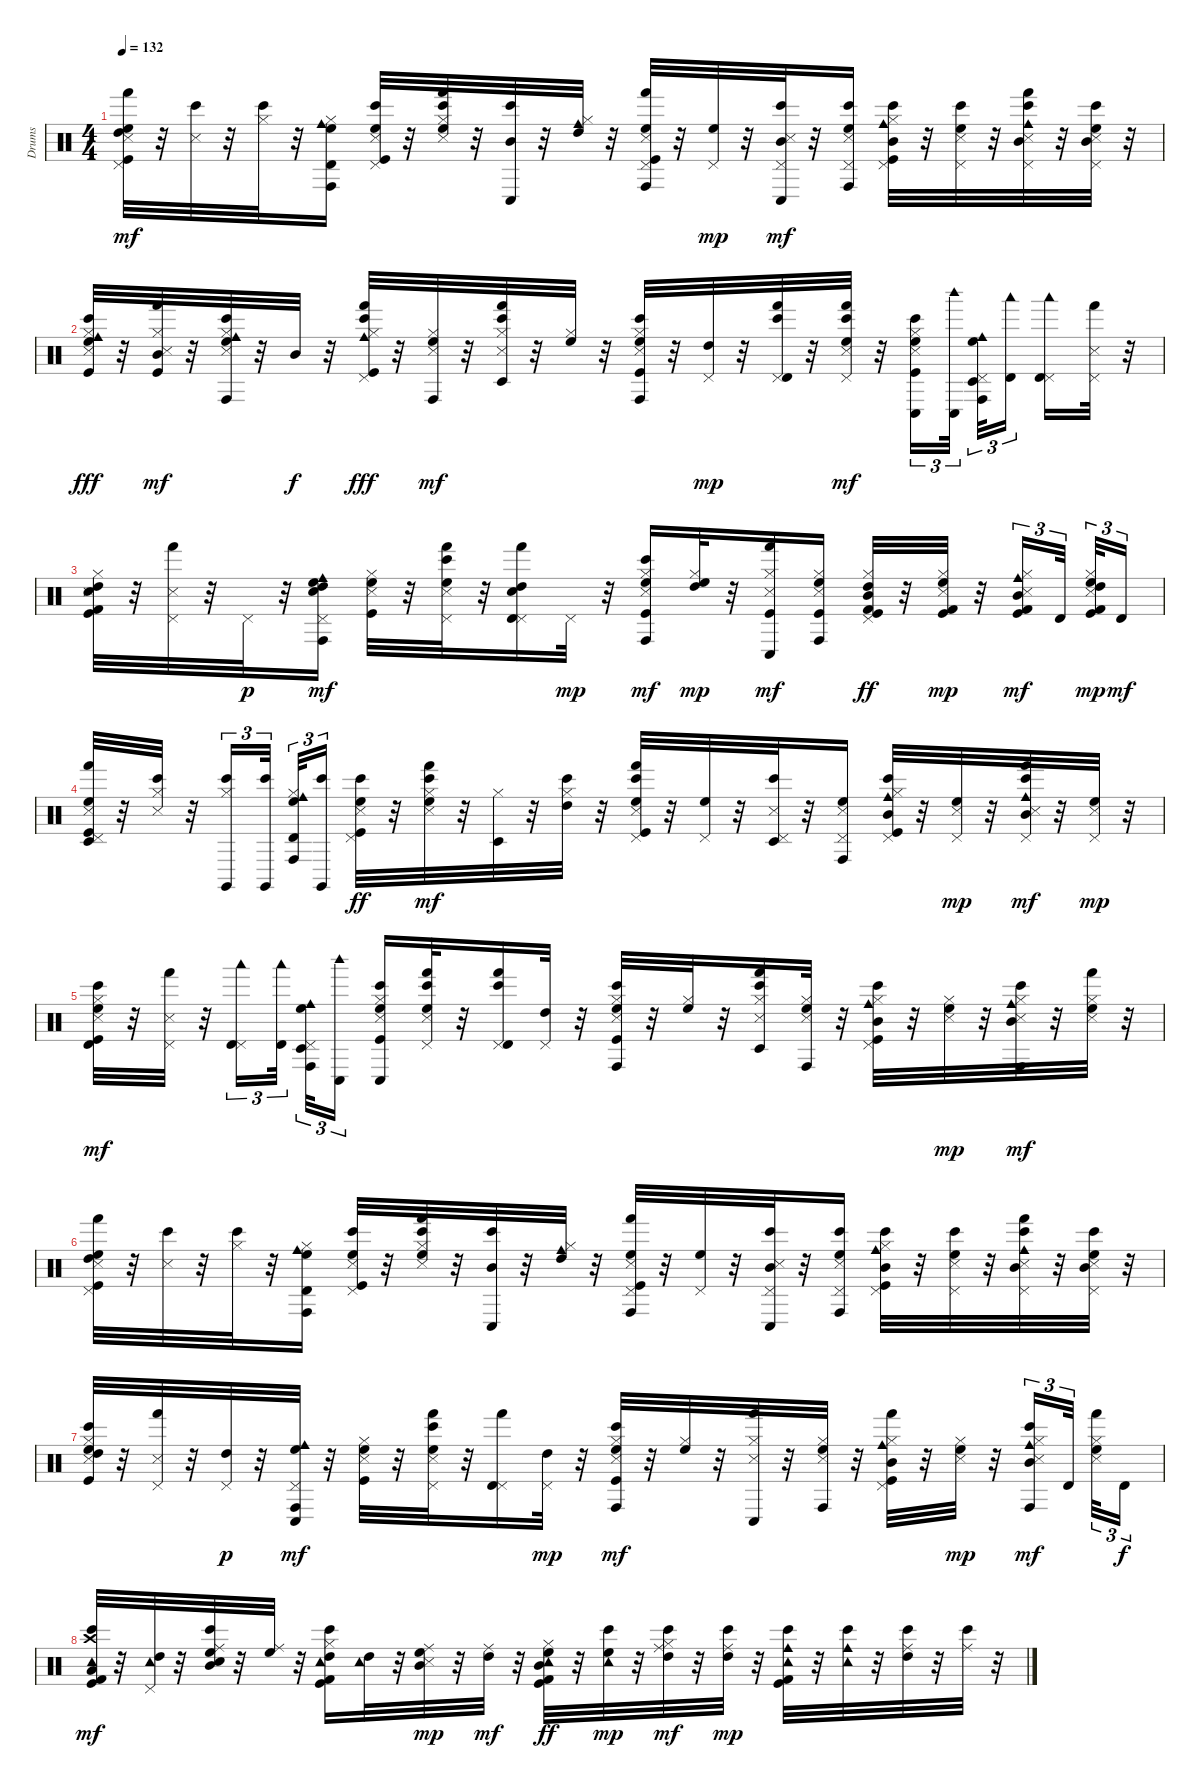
\track ("Drums" "Drums") {instrument percussion}
\staff {score}
\articulation defaults
\ts (4 4)
\tempo 132
\clef neutral
\ks c
("Kick (hit)" "Snare (side stick) 3" "Pedal Hi-Hat (hit)" "High Tom (hit)" "High Floor Tom (hit)" "Hand (hit)").32{dy mf} r.32 ("Snare (side stick) 3" "Bongo High (hit)").32 r.32 ("Hi-Hat (closed)" "Bongo High (hit)").32 r.32 ("Hi-Hat (closed)" "High Floor Tom (hit)" "Cowbell medium (hit)" "Conga high (hit)" "Timbale high (hit)").16 ("Kick (hit)" "Snare (side stick) 3" "Pedal Hi-Hat (hit)" "High Floor Tom (hit)" "Bongo High (hit)").32 r.32 ("Snare (side stick) 3" "Hi-Hat (closed)" "High Floor Tom (hit)" "Bongo High (hit)" "Hand (hit)").32 r.32 ("Mid Tom (hit)" "Bongo High (hit)" "Conga low (hit)").32 r.32 ("Hi-Hat (closed)" "High Tom (hit)" "Cowbell medium (hit)").32 r.32 ("Kick (hit)" "Snare (side stick) 3" "Pedal Hi-Hat (hit)" "High Floor Tom (hit)" "Hand (hit)" "Conga high (hit)").32 r.32 ("Pedal Hi-Hat (hit)" "High Floor Tom (hit)").32{dy mp} r.32 ("Snare (side stick) 3" "Pedal Hi-Hat (hit)" "Mid Tom (hit)" "Bongo High (hit)" "Conga low (hit)").32{dy mf} r.32 ("Snare (side stick) 3" "Pedal Hi-Hat (hit)" "High Floor Tom (hit)" "Bongo High (hit)" "Conga high (hit)").16 ("Kick (hit)" "Hi-Hat (closed)" "Pedal Hi-Hat (hit)" "Mid Tom (hit)" "Cowbell medium (hit)" "Bongo High (hit)").32 r.32 ("Snare (side stick) 3" "Pedal Hi-Hat (hit)" "High Floor Tom (hit)" "Bongo High (hit)").32 r.32 ("Snare (side stick) 3" "Pedal Hi-Hat (hit)" "Mid Tom (hit)" "Cowbell medium (hit)" "Bongo High (hit)" "Hand (hit)").32 r.32 ("Snare (side stick) 3" "Pedal Hi-Hat (hit)" "Mid Tom (hit)" "High Floor Tom (hit)" "Bongo High (hit)").32 r.32 |
("Kick (hit)" "Snare (side stick) 3" "Hi-Hat (closed)" "High Floor Tom (hit)" "Cowbell medium (hit)" "Bongo High (hit)").32{dy fff} r.32 ("Kick (hit)" "Snare (side stick) 3" "Hi-Hat (closed)" "Mid Tom (hit)" "Hand (hit)").32{dy mf} r.32 ("Snare (side stick) 3" "Hi-Hat (closed)" "High Floor Tom (hit)" "Cowbell medium (hit)" "Bongo High (hit)" "Conga high (hit)").32 r.32 "Mid Tom (hit)".32{dy f} r.32 ("Kick (hit)" "Hi-Hat (closed)" "Pedal Hi-Hat (hit)" "Cowbell medium (hit)" "Bongo High (hit)" "Hand (hit)").32{dy fff} r.32 ("Snare (side stick) 3" "Hi-Hat (closed)" "High Floor Tom (hit)" "Conga high (hit)").32{dy mf} r.32 ("Snare (side stick) 3" "Hi-Hat (closed)" "Bongo High (hit)" "Hand (hit)" "Timbale low (hit)").32 r.32 ("Hi-Hat (closed)" "High Floor Tom (hit)").32 r.32 ("Kick (hit)" "Snare (side stick) 3" "Hi-Hat (closed)" "High Floor Tom (hit)" "Bongo High (hit)" "Conga high (hit)").32 r.32 ("Pedal Hi-Hat (hit)" "High Tom (hit)").32{dy mp} r.32 ("Pedal Hi-Hat (hit)" "Bongo High (hit)" "Hand (hit)" "Timbale high (hit)").32 r.32 ("Snare (side stick) 3" "Pedal Hi-Hat (hit)" "High Floor Tom (hit)" "Bongo High (hit)" "Hand (hit)").32{dy mf} r.32 ("Kick (hit)" "Snare (side stick) 3" "Hi-Hat (closed)" "High Floor Tom (hit)" "Bongo High (hit)" "Conga low (hit)").16{tu (3 2)} ("Conga low (hit)" "Woodblock high (hit)").32{tu (3 2) beam splitsecondary} ("Pedal Hi-Hat (hit)" "High Floor Tom (hit)" "Cowbell medium (hit)" "Conga high (hit)" "Timbale low (hit)").32{tu (3 2)} ("Timbale high (hit)" "Woodblock low (hit)").16{tu (3 2) beam splitsecondary} ("Pedal Hi-Hat (hit)" "Timbale high (hit)" "Woodblock low (hit)").16 ("Snare (side stick) 3" "Pedal Hi-Hat (hit)" "Hand (hit)").32 r.32 |
("Kick (hit)" "Kick (hit) 2" "Snare (side stick) 3" "Snare (hit) 2" "Hi-Hat (closed)" "High Tom (hit)").32 r.32 ("Snare (side stick) 3" "Pedal Hi-Hat (hit)" "Hand (hit)").32 r.32 "Pedal Hi-Hat (hit)".32{dy p} r.32 ("Snare (hit) 2" "Pedal Hi-Hat (hit)" "High Tom (hit)" "High Floor Tom (hit)" "Cowbell medium (hit)" "Conga high (hit)").16{dy mf} ("Kick (hit)" "Snare (side stick) 3" "Hi-Hat (closed)" "High Floor Tom (hit)").32 r.32 ("Snare (side stick) 3" "Pedal Hi-Hat (hit)" "High Floor Tom (hit)" "Bongo High (hit)" "Hand (hit)").32 r.32 ("Snare (hit) 2" "Pedal Hi-Hat (hit)" "High Tom (hit)" "Hand (hit)" "Timbale high (hit)").16 "Pedal Hi-Hat (hit)".32{dy mp} r.32 ("Kick (hit)" "Snare (side stick) 3" "Hi-Hat (closed)" "High Floor Tom (hit)" "Bongo High (hit)" "Conga high (hit)").16{dy mf} ("Hi-Hat (closed)" "High Tom (hit)" "High Floor Tom (hit)").32{dy mp} r.32 ("Kick (hit)" "Snare (side stick) 3" "Hi-Hat (closed)" "Hand (hit)" "Conga low (hit)").16{dy mf} ("Kick (hit)" "Snare (side stick) 3" "Hi-Hat (closed)" "High Floor Tom (hit)" "Conga high (hit)").16 ("Kick (hit)" "Kick (hit) 2" "Hi-Hat (closed)" "Pedal Hi-Hat (hit)" "Mid Tom (hit)" "High Tom (hit)").32{dy ff} r.32 ("Kick (hit)" "Kick (hit) 2" "Snare (side stick) 3" "Hi-Hat (closed)" "High Floor Tom (hit)").32{dy mp} r.32 ("Kick (hit)" "Kick (hit) 2" "Snare (side stick) 3" "Hi-Hat (closed)" "Mid Tom (hit)" "Cowbell medium (hit)").16{tu (3 2) dy mf} "Timbale high (hit)".32{tu (3 2) beam splitsecondary} ("Kick (hit)" "Kick (hit) 2" "Snare (side stick) 3" "Hi-Hat (closed)" "High Tom (hit)" "High Floor Tom (hit)").32{tu (3 2) dy mp} "Timbale high (hit)".16{tu (3 2) dy mf} |
("Kick (hit)" "Snare (side stick) 3" "Pedal Hi-Hat (hit)" "High Floor Tom (hit)" "Hand (hit)" "Timbale low (hit)").32 r.32 ("Snare (side stick) 3" "Hi-Hat (closed)" "Bongo High (hit)").32 r.32 ("Hi-Hat (closed)" "Bongo High (hit)" "Claves (hit)").16{tu (3 2)} ("Bongo High (hit)" "Claves (hit)").32{tu (3 2) beam splitsecondary} ("Hi-Hat (closed)" "High Floor Tom (hit)" "Cowbell medium (hit)" "Conga high (hit)" "Timbale high (hit)").32{tu (3 2)} ("Bongo High (hit)" "Claves (hit)").16{tu (3 2)} ("Kick (hit)" "Snare (side stick) 3" "Pedal Hi-Hat (hit)" "High Floor Tom (hit)" "Bongo High (hit)").32{dy ff} r.32 ("Snare (side stick) 3" "Hi-Hat (closed)" "High Floor Tom (hit)" "Bongo High (hit)" "Hand (hit)").32{dy mf} r.32 ("Hi-Hat (closed)" "Timbale low (hit)").32 r.32 ("Hi-Hat (closed)" "High Tom (hit)" "Bongo High (hit)").32 r.32 ("Kick (hit)" "Snare (side stick) 3" "Pedal Hi-Hat (hit)" "High Floor Tom (hit)" "Bongo High (hit)" "Hand (hit)").32 r.32 ("Pedal Hi-Hat (hit)" "High Floor Tom (hit)").32 r.32 ("Snare (side stick) 3" "Pedal Hi-Hat (hit)" "Bongo High (hit)" "Timbale low (hit)").32 r.32 ("Snare (side stick) 3" "Pedal Hi-Hat (hit)" "High Floor Tom (hit)" "Conga high (hit)").16 ("Kick (hit)" "Hi-Hat (closed)" "Pedal Hi-Hat (hit)" "Mid Tom (hit)" "Cowbell medium (hit)" "Bongo High (hit)").32 r.32 ("Snare (side stick) 3" "Pedal Hi-Hat (hit)" "High Floor Tom (hit)").32{dy mp} r.32 ("Snare (side stick) 3" "Pedal Hi-Hat (hit)" "Mid Tom (hit)" "Cowbell medium (hit)" "Bongo High (hit)" "Hand (hit)").32{dy mf} r.32 ("Snare (side stick) 3" "Pedal Hi-Hat (hit)" "High Floor Tom (hit)").32{dy mp} r.32 |
("Kick (hit)" "Snare (side stick) 3" "Hi-Hat (closed)" "High Floor Tom (hit)" "Bongo High (hit)" "Timbale high (hit)").32{dy mf} r.32 ("Snare (side stick) 3" "Pedal Hi-Hat (hit)" "Hand (hit)").32 r.32 ("Pedal Hi-Hat (hit)" "Timbale high (hit)" "Woodblock low (hit)").16{tu (3 2)} ("Timbale high (hit)" "Woodblock low (hit)").32{tu (3 2) beam splitsecondary} ("Pedal Hi-Hat (hit)" "High Floor Tom (hit)" "Cowbell medium (hit)" "Conga high (hit)" "Timbale low (hit)").32{tu (3 2)} ("Conga low (hit)" "Woodblock high (hit)").16{tu (3 2)} ("Kick (hit)" "Snare (side stick) 3" "Hi-Hat (closed)" "High Floor Tom (hit)" "Bongo High (hit)" "Conga low (hit)").16 ("Snare (side stick) 3" "Pedal Hi-Hat (hit)" "High Floor Tom (hit)" "Bongo High (hit)" "Hand (hit)").32 r.32 ("Pedal Hi-Hat (hit)" "Bongo High (hit)" "Hand (hit)" "Timbale high (hit)").16 ("Pedal Hi-Hat (hit)" "High Tom (hit)").32 r.32 ("Kick (hit)" "Snare (side stick) 3" "Hi-Hat (closed)" "High Floor Tom (hit)" "Bongo High (hit)" "Conga high (hit)").32 r.32 ("Hi-Hat (closed)" "High Floor Tom (hit)").32 r.32 ("Snare (side stick) 3" "Hi-Hat (closed)" "Bongo High (hit)" "Hand (hit)" "Timbale low (hit)").16 ("Snare (side stick) 3" "Hi-Hat (closed)" "High Floor Tom (hit)" "Conga high (hit)").32 r.32 ("Kick (hit)" "Hi-Hat (closed)" "Pedal Hi-Hat (hit)" "Mid Tom (hit)" "Cowbell medium (hit)" "Bongo High (hit)").32 r.32 ("Snare (side stick) 3" "Hi-Hat (closed)" "High Floor Tom (hit)").32{dy mp} r.32 ("Snare (side stick) 3" "Hi-Hat (closed)" "Mid Tom (hit)" "Cowbell medium (hit)" "Bongo High (hit)" "Conga high (hit)").32{dy mf} r.32 ("Snare (side stick) 3" "Hi-Hat (closed)" "High Floor Tom (hit)" "Hand (hit)").32 r.32 |
("Kick (hit)" "Snare (side stick) 3" "Pedal Hi-Hat (hit)" "High Tom (hit)" "High Floor Tom (hit)" "Hand (hit)").32 r.32 ("Snare (side stick) 3" "Bongo High (hit)").32 r.32 ("Hi-Hat (closed)" "Bongo High (hit)").32 r.32 ("Hi-Hat (closed)" "High Floor Tom (hit)" "Cowbell medium (hit)" "Conga high (hit)" "Timbale high (hit)").16 ("Kick (hit)" "Snare (side stick) 3" "Pedal Hi-Hat (hit)" "High Floor Tom (hit)" "Bongo High (hit)").32 r.32 ("Snare (side stick) 3" "Hi-Hat (closed)" "High Floor Tom (hit)" "Bongo High (hit)" "Hand (hit)").32 r.32 ("Mid Tom (hit)" "Bongo High (hit)" "Conga low (hit)").32 r.32 ("Hi-Hat (closed)" "High Tom (hit)" "Cowbell medium (hit)").32 r.32 ("Kick (hit)" "Snare (side stick) 3" "Pedal Hi-Hat (hit)" "High Floor Tom (hit)" "Hand (hit)" "Conga high (hit)").32 r.32 ("Pedal Hi-Hat (hit)" "High Floor Tom (hit)").32 r.32 ("Snare (side stick) 3" "Pedal Hi-Hat (hit)" "Mid Tom (hit)" "Bongo High (hit)" "Conga low (hit)").32 r.32 ("Snare (side stick) 3" "Pedal Hi-Hat (hit)" "High Floor Tom (hit)" "Bongo High (hit)" "Conga high (hit)").16 ("Kick (hit)" "Hi-Hat (closed)" "Pedal Hi-Hat (hit)" "Mid Tom (hit)" "Cowbell medium (hit)" "Bongo High (hit)").32 r.32 ("Snare (side stick) 3" "Pedal Hi-Hat (hit)" "High Floor Tom (hit)" "Bongo High (hit)").32 r.32 ("Snare (side stick) 3" "Pedal Hi-Hat (hit)" "Mid Tom (hit)" "Cowbell medium (hit)" "Bongo High (hit)" "Hand (hit)").32 r.32 ("Snare (side stick) 3" "Pedal Hi-Hat (hit)" "Mid Tom (hit)" "High Floor Tom (hit)" "Bongo High (hit)").32 r.32 |
("Kick (hit)" "Snare (side stick) 3" "Hi-Hat (closed)" "High Tom (hit)" "High Floor Tom (hit)" "Bongo High (hit)").32 r.32 ("Snare (side stick) 3" "Pedal Hi-Hat (hit)" "Hand (hit)").32 r.32 ("Pedal Hi-Hat (hit)" "High Tom (hit)").32{dy p} r.32 ("Pedal Hi-Hat (hit)" "High Floor Tom (hit)" "Cowbell medium (hit)" "Conga high (hit)" "Conga low (hit)").32{dy mf} r.32 ("Kick (hit)" "Snare (side stick) 3" "Hi-Hat (closed)" "High Floor Tom (hit)").32 r.32 ("Snare (side stick) 3" "Pedal Hi-Hat (hit)" "High Floor Tom (hit)" "Bongo High (hit)" "Hand (hit)").32 r.32 ("Pedal Hi-Hat (hit)" "Hand (hit)" "Timbale high (hit)").16 ("Pedal Hi-Hat (hit)" "High Tom (hit)").32{dy mp} r.32 ("Kick (hit)" "Snare (side stick) 3" "Hi-Hat (closed)" "High Floor Tom (hit)" "Bongo High (hit)" "Conga high (hit)").32{dy mf} r.32 ("Hi-Hat (closed)" "High Floor Tom (hit)").32 r.32 ("Snare (side stick) 3" "Hi-Hat (closed)" "Hand (hit)" "Conga low (hit)").32 r.32 ("Snare (side stick) 3" "Hi-Hat (closed)" "High Floor Tom (hit)" "Conga high (hit)").32 r.32 ("Kick (hit)" "Hi-Hat (closed)" "Pedal Hi-Hat (hit)" "Mid Tom (hit)" "Cowbell medium (hit)" "Hand (hit)").32 r.32 ("Snare (side stick) 3" "Hi-Hat (closed)" "High Floor Tom (hit)").32{dy mp} r.32 ("Snare (side stick) 3" "Hi-Hat (closed)" "Mid Tom (hit)" "Cowbell medium (hit)" "Bongo High (hit)" "Conga high (hit)").16{tu (3 2) dy mf} "Timbale high (hit)".32{tu (3 2) beam splitsecondary} ("Snare (side stick) 3" "Hi-Hat (closed)" "High Floor Tom (hit)" "Hand (hit)").32{tu (3 2)} "Timbale high (hit)".16{tu (3 2) dy f} |
("Kick (hit)" "Kick (hit) 2" "Low Tom (hit)" "Crash high (hit)" "Tambourine (hit)" "Bongo High (hit)").32{dy mf} r.32 ("Pedal Hi-Hat (hit)" "High Tom (hit)" "Tambourine (hit)").32 r.32 ("Hand Clap (hit)" "Mid Tom (hit)" "High Floor Tom (hit)" "Ride (middle)" "Bongo High (hit)").32 r.32 ("High Floor Tom (hit)" "Ride (middle)").32 r.32 ("Kick (hit)" "Kick (hit) 2" "Hi-Hat (closed)" "High Tom (hit)" "Tambourine (hit)" "Bongo High (hit)").16 ("High Tom (hit)" "Tambourine (hit)").32 r.32 ("Snare (side stick) 3" "Mid Tom (hit)" "High Floor Tom (hit)" "Ride (middle)").32{dy mp} r.32 ("High Tom (hit)" "Ride (middle)").32{dy mf} r.32 ("Kick (hit)" "Kick (hit) 2" "Hi-Hat (closed)" "Mid Tom (hit)" "High Floor Tom (hit)" "Tambourine (hit)").32{dy ff} r.32 ("High Floor Tom (hit)" "Tambourine (hit)" "Bongo High (hit)").32{dy mp} r.32 ("Hi-Hat (closed)" "High Tom (hit)" "Ride (middle)" "Bongo High (hit)").32{dy mf} r.32 ("High Tom (hit)" "Ride (middle)" "Bongo High (hit)").32{dy mp} r.32 ("Kick (hit)" "Kick (hit) 2" "Tambourine (hit)" "Cowbell medium (hit)" "Bongo High (hit)").32 r.32 ("Tambourine (hit)" "Cowbell medium (hit)" "Bongo High (hit)").32 r.32 ("High Tom (hit)" "Ride (middle)" "Bongo High (hit)").32 r.32 ("Ride (middle)" "Bongo High (hit)").32 r.32
